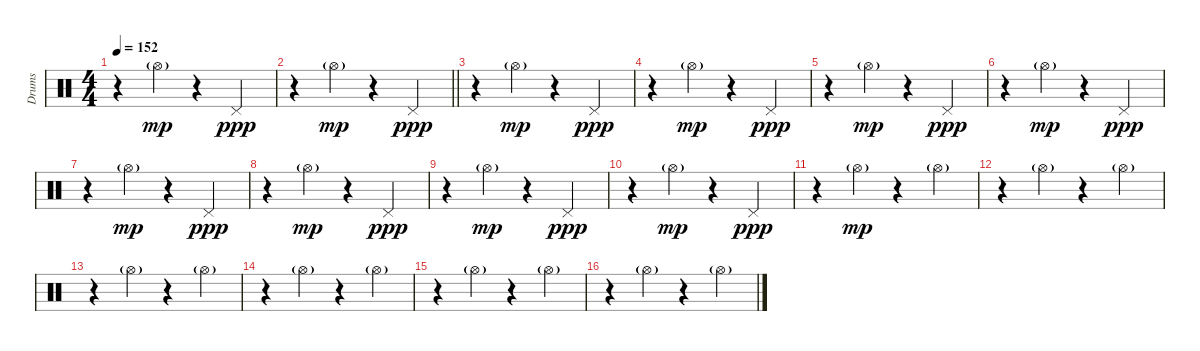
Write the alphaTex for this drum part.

\track ("Drums" "Drums") {instrument percussion}
\staff {score}
\articulation defaults
\ts (4 4)
\tempo 152
\clef neutral
\ks c
r.4{dy mp} "Hi-Hat (open)"{g}.4 r.4 "Pedal Hi-Hat (hit)".4{dy ppp} |
\barLineRight lightlight
r.4 "Hi-Hat (open)"{g}.4{dy mp} r.4 "Pedal Hi-Hat (hit)".4{dy ppp} |
r.4 "Hi-Hat (open)"{g}.4{dy mp} r.4 "Pedal Hi-Hat (hit)".4{dy ppp} |
r.4 "Hi-Hat (open)"{g}.4{dy mp} r.4 "Pedal Hi-Hat (hit)".4{dy ppp} |
r.4 "Hi-Hat (open)"{g}.4{dy mp} r.4 "Pedal Hi-Hat (hit)".4{dy ppp} |
r.4 "Hi-Hat (open)"{g}.4{dy mp} r.4 "Pedal Hi-Hat (hit)".4{dy ppp} |
r.4 "Hi-Hat (open)"{g}.4{dy mp} r.4 "Pedal Hi-Hat (hit)".4{dy ppp} |
r.4 "Hi-Hat (open)"{g}.4{dy mp} r.4 "Pedal Hi-Hat (hit)".4{dy ppp} |
r.4 "Hi-Hat (open)"{g}.4{dy mp} r.4 "Pedal Hi-Hat (hit)".4{dy ppp} |
r.4 "Hi-Hat (open)"{g}.4{dy mp} r.4 "Pedal Hi-Hat (hit)".4{dy ppp} |
r.4 "Hi-Hat (open)"{g}.4{dy mp} r.4 "Hi-Hat (open)"{g}.4 |
r.4 "Hi-Hat (open)"{g}.4 r.4 "Hi-Hat (open)"{g}.4 |
r.4 "Hi-Hat (open)"{g}.4 r.4 "Hi-Hat (open)"{g}.4 |
r.4 "Hi-Hat (open)"{g}.4 r.4 "Hi-Hat (open)"{g}.4 |
r.4 "Hi-Hat (open)"{g}.4 r.4 "Hi-Hat (open)"{g}.4 |
r.4 "Hi-Hat (open)"{g}.4 r.4 "Hi-Hat (open)"{g}.4
